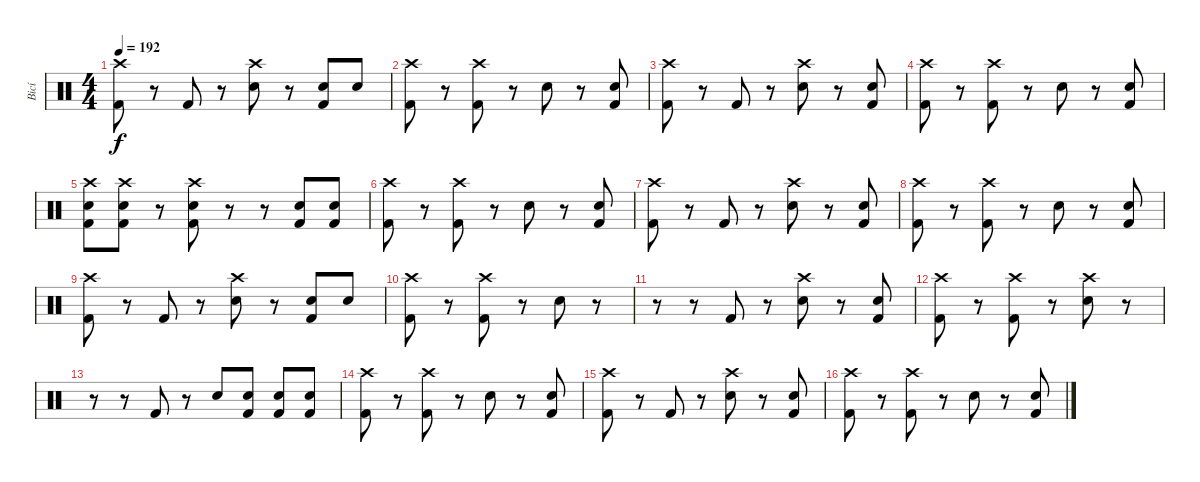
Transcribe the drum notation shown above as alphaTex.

\track ("Bicí" "Bicí") {instrument percussion}
\staff {score}
\articulation defaults
\ts (4 4)
\tempo 192
\clef neutral
\ks c
("Crash high (hit)" "Kick (hit) 2").8{dy f} r.8 "Kick (hit) 2".8 r.8 ("Crash high (hit)" "Electric Snare (hit)").8 r.8 ("Electric Snare (hit)" "Kick (hit) 2").8 "Snare (hit) 2".8 |
("Crash high (hit)" "Kick (hit) 2").8 r.8 ("Crash high (hit)" "Kick (hit) 2").8 r.8 "Electric Snare (hit)".8 r.8 ("Electric Snare (hit)" "Kick (hit) 2").8 |
("Crash high (hit)" "Kick (hit) 2").8 r.8 "Kick (hit) 2".8 r.8 ("Crash high (hit)" "Electric Snare (hit)").8 r.8 ("Electric Snare (hit)" "Kick (hit) 2").8 |
("Crash high (hit)" "Kick (hit) 2").8 r.8 ("Crash high (hit)" "Kick (hit) 2").8 r.8 "Electric Snare (hit)".8 r.8 ("Electric Snare (hit)" "Kick (hit) 2").8 |
("Crash high (hit)" "Electric Snare (hit)" "Kick (hit) 2").8 ("Crash high (hit)" "Electric Snare (hit)" "Kick (hit) 2").8 r.8 ("Crash high (hit)" "Electric Snare (hit)" "Kick (hit) 2").8 r.8 r.8 ("Electric Snare (hit)" "Kick (hit) 2").8 ("Electric Snare (hit)" "Kick (hit) 2").8 |
("Crash high (hit)" "Kick (hit) 2").8 r.8 ("Crash high (hit)" "Kick (hit) 2").8 r.8 "Electric Snare (hit)".8 r.8 ("Electric Snare (hit)" "Kick (hit) 2").8 |
("Crash high (hit)" "Kick (hit) 2").8 r.8 "Kick (hit) 2".8 r.8 ("Crash high (hit)" "Electric Snare (hit)").8 r.8 ("Electric Snare (hit)" "Kick (hit) 2").8 |
("Crash high (hit)" "Kick (hit) 2").8 r.8 ("Crash high (hit)" "Kick (hit) 2").8 r.8 "Electric Snare (hit)".8 r.8 ("Electric Snare (hit)" "Kick (hit) 2").8 |
("Crash high (hit)" "Kick (hit) 2").8 r.8 "Kick (hit) 2".8 r.8 ("Crash high (hit)" "Electric Snare (hit)").8 r.8 ("Electric Snare (hit)" "Kick (hit) 2").8 "Snare (hit) 2".8 |
("Crash high (hit)" "Kick (hit) 2").8 r.8 ("Crash high (hit)" "Kick (hit) 2").8 r.8 "Electric Snare (hit)".8 r.8 |
r.8 r.8 "Kick (hit) 2".8 r.8 ("Crash high (hit)" "Electric Snare (hit)").8 r.8 ("Electric Snare (hit)" "Kick (hit) 2").8 |
("Crash high (hit)" "Kick (hit) 2").8 r.8 ("Crash high (hit)" "Kick (hit) 2").8 r.8 ("Crash high (hit)" "Electric Snare (hit)").8 r.8 |
r.8 r.8 "Kick (hit) 2".8 r.8 "Electric Snare (hit)".8 ("Electric Snare (hit)" "Kick (hit) 2").8 ("Electric Snare (hit)" "Kick (hit) 2").8 ("Electric Snare (hit)" "Kick (hit) 2").8 |
("Crash high (hit)" "Kick (hit) 2").8 r.8 ("Crash high (hit)" "Kick (hit) 2").8 r.8 "Electric Snare (hit)".8 r.8 ("Electric Snare (hit)" "Kick (hit) 2").8 |
("Crash high (hit)" "Kick (hit) 2").8 r.8 "Kick (hit) 2".8 r.8 ("Crash high (hit)" "Electric Snare (hit)").8 r.8 ("Electric Snare (hit)" "Kick (hit) 2").8 |
("Crash high (hit)" "Kick (hit) 2").8 r.8 ("Crash high (hit)" "Kick (hit) 2").8 r.8 "Electric Snare (hit)".8 r.8 ("Electric Snare (hit)" "Kick (hit) 2").8
